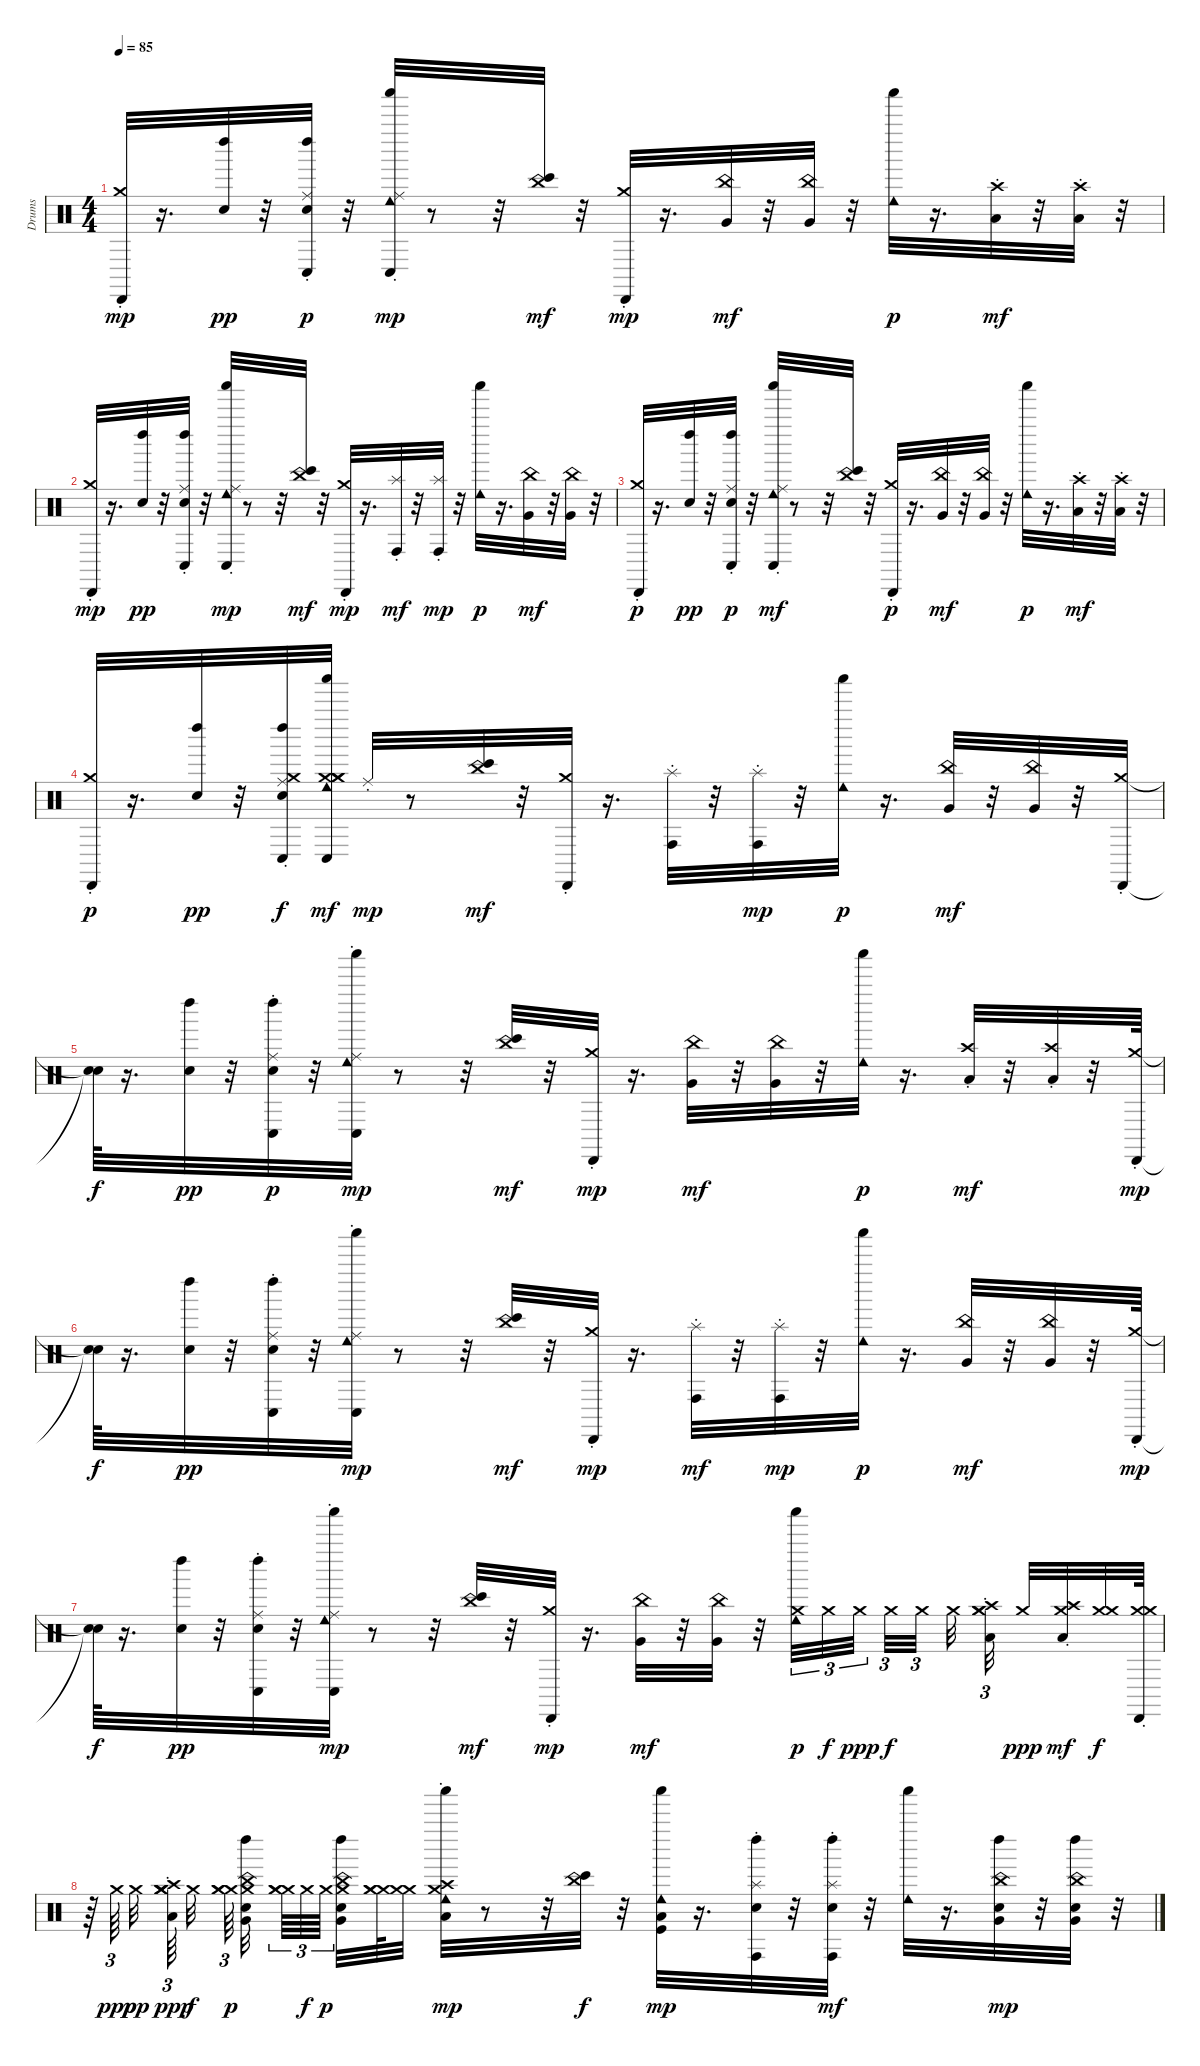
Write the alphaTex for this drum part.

\track ("Drums" "Drums") {instrument percussion}
\staff {score}
\articulation defaults
\ts (4 4)
\tempo 85
\clef neutral
\ks c
("Cabasa (hit)" "Crash medium (choke)").32{dy mp} r.16{d} ("Left Maraca (hit)" "Snare (hit)").32{dy pp} r.32 ("Conga low (hit)" "Ride (choke)" "Snare (hit)" "Left Maraca (hit)").32{dy p} r.32 ("Shaker (hit)" "Conga low (hit)" "Cowbell low (hit)" "Ride (choke)").32{dy mp} r.8 r.32 ("Bongo High (hit)" "China (choke)").32{dy mf} r.32 ("Cabasa (hit)" "Crash medium (choke)").32{dy mp} r.16{d} ("Very Low Tom (hit)" "China (choke)").32{dy mf} r.32 ("China (choke)" "Very Low Tom (hit)").32 r.32 ("Shaker (hit)" "Cowbell low (hit)").32{dy p} r.16{d} ("Crash high (choke)" "Low Floor Tom (hit)").32{dy mf} r.32 ("Low Floor Tom (hit)" "Crash high (choke)").32 r.32 |
("Crash medium (choke)" "Cabasa (hit)").32{dy mp} r.16{d} ("Left Maraca (hit)" "Snare (hit)").32{dy pp} r.32 ("Conga low (hit)" "Ride (choke)" "Left Maraca (hit)" "Snare (hit)").32 r.32 ("Shaker (hit)" "Cowbell low (hit)" "Conga low (hit)" "Ride (choke)").32{dy mp} r.8 r.32 ("Bongo High (hit)" "China (choke)").32{dy mf} r.32 ("Cabasa (hit)" "Crash medium (choke)").32{dy mp} r.16{d} ("Conga high (hit)" "Splash (choke)").32{dy mf} r.32 ("Conga high (hit)" "Splash (choke)").32{dy mp} r.32 ("Shaker (hit)" "Cowbell low (hit)").32{dy p} r.16{d} ("China (choke)" "Very Low Tom (hit)").32{dy mf} r.32 ("Very Low Tom (hit)" "China (choke)").32 r.32 |
("Cabasa (hit)" "Crash medium (choke)").32{dy p} r.16{d} ("Left Maraca (hit)" "Snare (hit)").32{dy pp} r.32 ("Ride (choke)" "Conga low (hit)" "Left Maraca (hit)" "Snare (hit)").32{dy p} r.32 ("Cowbell low (hit)" "Shaker (hit)" "Ride (choke)" "Conga low (hit)").32{dy mf} r.8 r.32 ("Bongo High (hit)" "China (choke)").32 r.32 ("Cabasa (hit)" "Crash medium (choke)").32{dy p} r.16{d} ("China (choke)" "Very Low Tom (hit)").32{dy mf} r.32 ("Very Low Tom (hit)" "China (choke)").32 r.32 ("Shaker (hit)" "Cowbell low (hit)").32{dy p} r.16{d} ("Low Floor Tom (hit)" "Crash high (choke)").32{dy mf} r.32 ("Low Floor Tom (hit)" "Crash high (choke)").32 r.32 |
("Cabasa (hit)" "Crash medium (choke)").32{dy p} r.16{d} ("Left Maraca (hit)" "Snare (hit)").32{dy pp} r.32 ("Ride (choke)" "Snare (hit)" "Conga low (hit)" "Left Maraca (hit)" "Crash medium (hit)").32{dy f} ("Crash medium (hit)" "Crash medium (hit)" "Crash medium (hit)" "Shaker (hit)" "Cowbell low (hit)" "Conga low (hit)").32{dy mf} "Ride (choke)".32{dy mp} r.8 ("China (choke)" "Bongo High (hit)").32{dy mf} r.32 ("Crash medium (choke)" "Cabasa (hit)").32 r.16{d} ("Conga high (hit)" "Splash (choke)").32 r.32 ("Conga high (hit)" "Splash (choke)").32{dy mp} r.32 ("Shaker (hit)" "Cowbell low (hit)").32{dy p} r.16{d} ("China (choke)" "Very Low Tom (hit)").32{dy mf} r.32 ("Very Low Tom (hit)" "China (choke)").32 r.32 ("Crash medium (choke)" "Cabasa (hit)").32 |
("Snare (hit)"{t} "Snare (hit)"{t}).64{dy f} r.16{d} ("Left Maraca (hit)" "Snare (hit)").32{dy pp} r.32 ("Ride (choke)" "Conga low (hit)" "Snare (hit)" "Left Maraca (hit)").32{dy p} r.32 ("Shaker (hit)" "Cowbell low (hit)" "Conga low (hit)" "Ride (choke)").32{dy mp} r.8 r.32 ("Bongo High (hit)" "China (choke)").32{dy mf} r.32 ("Cabasa (hit)" "Crash medium (choke)").32{dy mp} r.16{d} ("China (choke)" "Very Low Tom (hit)").32{dy mf} r.32 ("China (choke)" "Very Low Tom (hit)").32 r.32 ("Shaker (hit)" "Cowbell low (hit)").32{dy p} r.16{d} ("Crash high (choke)" "Low Floor Tom (hit)").32{dy mf} r.32 ("Crash high (choke)" "Low Floor Tom (hit)").32 r.32 ("Cabasa (hit)" "Crash medium (choke)").64{dy mp} |
("Snare (hit)"{t} "Snare (hit)"{t}).64{dy f} r.16{d} ("Left Maraca (hit)" "Snare (hit)").32{dy pp} r.32 ("Conga low (hit)" "Ride (choke)" "Left Maraca (hit)" "Snare (hit)").32 r.32 ("Shaker (hit)" "Conga low (hit)" "Cowbell low (hit)" "Ride (choke)").32{dy mp} r.8 r.32 ("Bongo High (hit)" "China (choke)").32{dy mf} r.32 ("Crash medium (choke)" "Cabasa (hit)").32{dy mp} r.16{d} ("Splash (choke)" "Conga high (hit)").32{dy mf} r.32 ("Conga high (hit)" "Splash (choke)").32{dy mp} r.32 ("Shaker (hit)" "Cowbell low (hit)").32{dy p} r.16{d} ("China (choke)" "Very Low Tom (hit)").32{dy mf} r.32 ("China (choke)" "Very Low Tom (hit)").32 r.32 ("Cabasa (hit)" "Crash medium (choke)").64{dy mp} |
("Snare (hit)"{t} "Snare (hit)"{t}).64{dy f} r.16{d} ("Left Maraca (hit)" "Snare (hit)").32{dy pp} r.32 ("Conga low (hit)" "Ride (choke)" "Left Maraca (hit)" "Snare (hit)").32 r.32 ("Cowbell low (hit)" "Shaker (hit)" "Conga low (hit)" "Ride (choke)").32{dy mp} r.8 r.32 ("Bongo High (hit)" "China (choke)").32{dy mf} r.32 ("Cabasa (hit)" "Crash medium (choke)").32{dy mp} r.16{d} ("China (choke)" "Very Low Tom (hit)").32{dy mf} r.32 ("China (choke)" "Very Low Tom (hit)").32 r.32 ("Crash medium (hit)" "Shaker (hit)" "Cowbell low (hit)").32{tu (3 2) dy p} "Crash medium (hit)".32{tu (3 2) dy f} "Crash medium (hit)".32{tu (3 2) dy ppp} "Crash medium (hit)".32{tu (3 2) dy f} "Crash medium (hit)".32{tu (3 2)} "Crash medium (hit)".32 ("Crash medium (hit)" "Crash high (choke)" "Low Floor Tom (hit)" "Crash medium (hit)").32{tu (3 2)} "Crash medium (hit)".32{dy ppp} ("Crash high (choke)" "Crash medium (hit)" "Low Floor Tom (hit)").32{dy mf} ("Crash medium (hit)" "Crash medium (hit)").32{dy f} ("Cabasa (hit)" "Crash medium (choke)" "Crash medium (hit)").64 |
r.64 "Crash medium (hit)".64{tu (3 2) dy ppp} "Crash medium (hit)".32{dy pp} ("Crash medium (hit)" "Crash medium (hit)" "Crash high (choke)" "Low Floor Tom (hit)" "Crash medium (hit)").64{tu (3 2) dy ppp} "Crash medium (hit)".32{dy f} ("Crash medium (hit)" "Crash medium (hit)" "Crash medium (hit)").64{tu (3 2) dy p} ("Crash medium (hit)" "China (choke)" "Very Low Tom (hit)" "Left Maraca (hit)" "Snare (hit)").32 ("Crash medium (hit)" "Crash medium (hit)" "Crash medium (hit)").64{tu (3 2)} "Crash medium (hit)".64{tu (3 2) dy f} "Crash medium (hit)".64{tu (3 2) dy p} ("Crash medium (hit)" "Very Low Tom (hit)" "China (choke)" "Snare (hit)" "Left Maraca (hit)").32 ("Crash medium (hit)" "Crash medium (hit)" "Crash medium (hit)").64 ("Crash medium (hit)" "Crash medium (hit)").32 ("Crash medium (hit)" "Low Floor Tom (hit)" "Crash high (choke)" "Cowbell low (hit)" "Shaker (hit)").32{dy mp} r.8 r.32 ("Bongo High (hit)" "China (choke)").32{dy f} r.32 ("Low Floor Tom (hit)" "Kick (hit)" "Cowbell low (hit)" "Shaker (hit)").32{dy mp} r.16{d} ("Conga high (hit)" "Splash (choke)" "Left Maraca (hit)" "Snare (hit)").32 r.32 ("Left Maraca (hit)" "Snare (hit)" "Conga high (hit)" "Splash (choke)").32{dy mf} r.32 ("Shaker (hit)" "Cowbell low (hit)").32 r.16{d} ("China (choke)" "Very Low Tom (hit)" "Left Maraca (hit)" "Snare (hit)").32{dy mp} r.32 ("China (choke)" "Very Low Tom (hit)" "Left Maraca (hit)" "Snare (hit)").32 r.32
